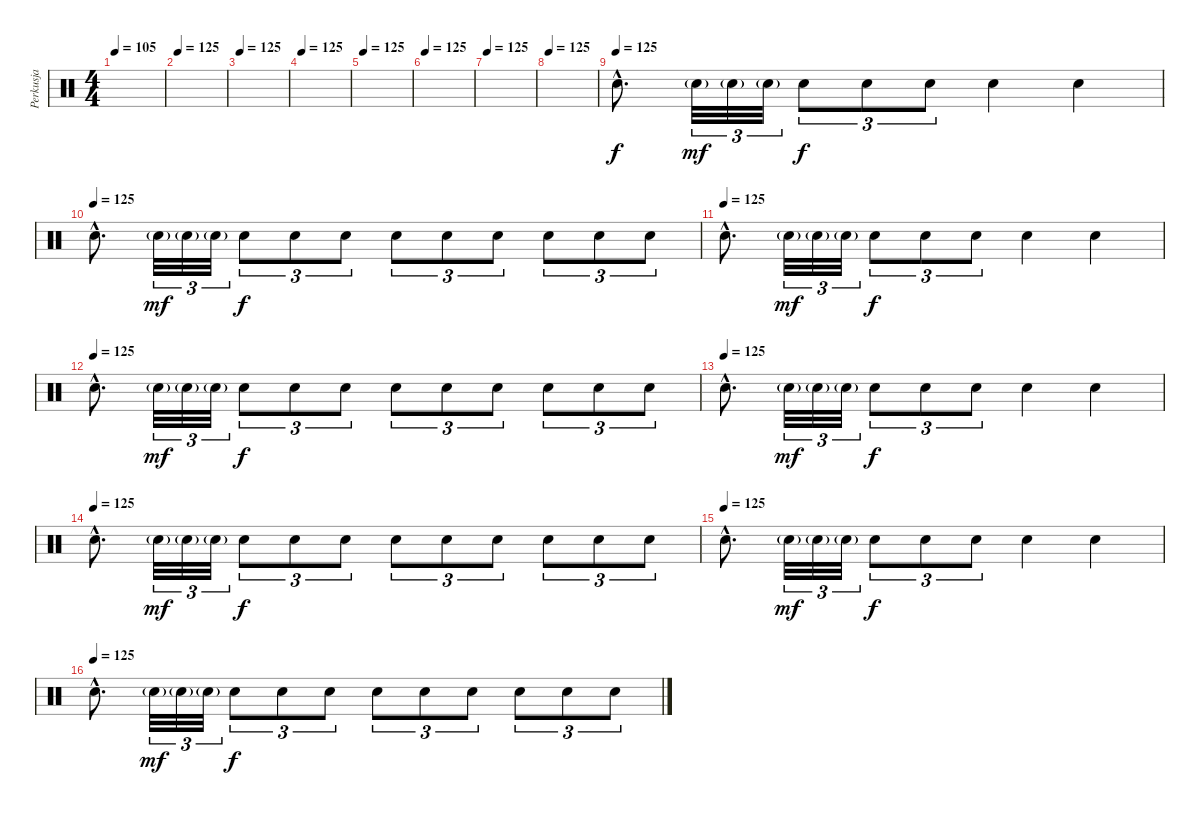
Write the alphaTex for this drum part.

\track ("Perkusja" "Perkusja") {instrument percussion}
\staff {score}
\articulation defaults
\ts (4 4)
\tempo 105
\tempo 125
\tempo 105
\clef neutral
\ks c
|
\tempo 125
|
\tempo 125
|
\tempo 125
|
\tempo 125
|
\tempo 125
|
\tempo 125
|
\tempo 125
|
\tempo (125)
"Snare (hit) 2"{hac}.8{d} "Snare (hit) 2"{g}.32{tu (3 2) dy mf} "Snare (hit) 2"{g}.32{tu (3 2)} "Snare (hit) 2"{g}.32{tu (3 2)} "Snare (hit) 2".8{tu (3 2) dy f} "Snare (hit) 2".8{tu (3 2)} "Snare (hit) 2".8{tu (3 2)} "Snare (hit) 2".4 "Snare (hit) 2".4 |
\tempo (125)
"Snare (hit) 2"{hac}.8{d} "Snare (hit) 2"{g}.32{tu (3 2) dy mf} "Snare (hit) 2"{g}.32{tu (3 2)} "Snare (hit) 2"{g}.32{tu (3 2)} "Snare (hit) 2".8{tu (3 2) dy f} "Snare (hit) 2".8{tu (3 2)} "Snare (hit) 2".8{tu (3 2)} "Snare (hit) 2".8{tu (3 2)} "Snare (hit) 2".8{tu (3 2)} "Snare (hit) 2".8{tu (3 2)} "Snare (hit) 2".8{tu (3 2)} "Snare (hit) 2".8{tu (3 2)} "Snare (hit) 2".8{tu (3 2)} |
\tempo (125)
"Snare (hit) 2"{hac}.8{d} "Snare (hit) 2"{g}.32{tu (3 2) dy mf} "Snare (hit) 2"{g}.32{tu (3 2)} "Snare (hit) 2"{g}.32{tu (3 2)} "Snare (hit) 2".8{tu (3 2) dy f} "Snare (hit) 2".8{tu (3 2)} "Snare (hit) 2".8{tu (3 2)} "Snare (hit) 2".4 "Snare (hit) 2".4 |
\tempo (125)
"Snare (hit) 2"{hac}.8{d} "Snare (hit) 2"{g}.32{tu (3 2) dy mf} "Snare (hit) 2"{g}.32{tu (3 2)} "Snare (hit) 2"{g}.32{tu (3 2)} "Snare (hit) 2".8{tu (3 2) dy f} "Snare (hit) 2".8{tu (3 2)} "Snare (hit) 2".8{tu (3 2)} "Snare (hit) 2".8{tu (3 2)} "Snare (hit) 2".8{tu (3 2)} "Snare (hit) 2".8{tu (3 2)} "Snare (hit) 2".8{tu (3 2)} "Snare (hit) 2".8{tu (3 2)} "Snare (hit) 2".8{tu (3 2)} |
\tempo (125)
"Snare (hit) 2"{hac}.8{d} "Snare (hit) 2"{g}.32{tu (3 2) dy mf} "Snare (hit) 2"{g}.32{tu (3 2)} "Snare (hit) 2"{g}.32{tu (3 2)} "Snare (hit) 2".8{tu (3 2) dy f} "Snare (hit) 2".8{tu (3 2)} "Snare (hit) 2".8{tu (3 2)} "Snare (hit) 2".4 "Snare (hit) 2".4 |
\tempo (125)
"Snare (hit) 2"{hac}.8{d} "Snare (hit) 2"{g}.32{tu (3 2) dy mf} "Snare (hit) 2"{g}.32{tu (3 2)} "Snare (hit) 2"{g}.32{tu (3 2)} "Snare (hit) 2".8{tu (3 2) dy f} "Snare (hit) 2".8{tu (3 2)} "Snare (hit) 2".8{tu (3 2)} "Snare (hit) 2".8{tu (3 2)} "Snare (hit) 2".8{tu (3 2)} "Snare (hit) 2".8{tu (3 2)} "Snare (hit) 2".8{tu (3 2)} "Snare (hit) 2".8{tu (3 2)} "Snare (hit) 2".8{tu (3 2)} |
\tempo (125)
"Snare (hit) 2"{hac}.8{d} "Snare (hit) 2"{g}.32{tu (3 2) dy mf} "Snare (hit) 2"{g}.32{tu (3 2)} "Snare (hit) 2"{g}.32{tu (3 2)} "Snare (hit) 2".8{tu (3 2) dy f} "Snare (hit) 2".8{tu (3 2)} "Snare (hit) 2".8{tu (3 2)} "Snare (hit) 2".4 "Snare (hit) 2".4 |
\tempo (125)
"Snare (hit) 2"{hac}.8{d} "Snare (hit) 2"{g}.32{tu (3 2) dy mf} "Snare (hit) 2"{g}.32{tu (3 2)} "Snare (hit) 2"{g}.32{tu (3 2)} "Snare (hit) 2".8{tu (3 2) dy f} "Snare (hit) 2".8{tu (3 2)} "Snare (hit) 2".8{tu (3 2)} "Snare (hit) 2".8{tu (3 2)} "Snare (hit) 2".8{tu (3 2)} "Snare (hit) 2".8{tu (3 2)} "Snare (hit) 2".8{tu (3 2)} "Snare (hit) 2".8{tu (3 2)} "Snare (hit) 2".8{tu (3 2)}
